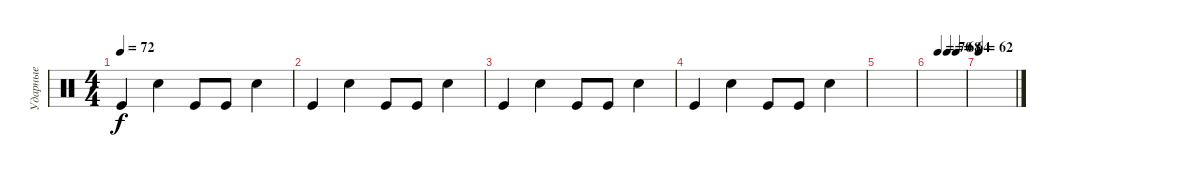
\track ("Ударные" "Ударные") {instrument percussion}
\staff {score}
\articulation defaults
\ts (4 4)
\tempo 72
\clef neutral
\ks c "Kick (hit)".4{dy f} "Snare (hit) 2".4 "Kick (hit)".8 "Kick (hit)".8 "Snare (hit) 2".4
|
"Kick (hit)".4 "Snare (hit) 2".4 "Kick (hit)".8 "Kick (hit)".8 "Snare (hit) 2".4 |
"Kick (hit)".4 "Snare (hit) 2".4 "Kick (hit)".8 "Kick (hit)".8 "Snare (hit) 2".4 |
"Kick (hit)".4 "Snare (hit) 2".4 "Kick (hit)".8 "Kick (hit)".8 "Snare (hit) 2".4 |
|
\tempo (70 0.25)
\tempo (68 0.5)
\tempo (64 0.75)
|
\tempo 62
